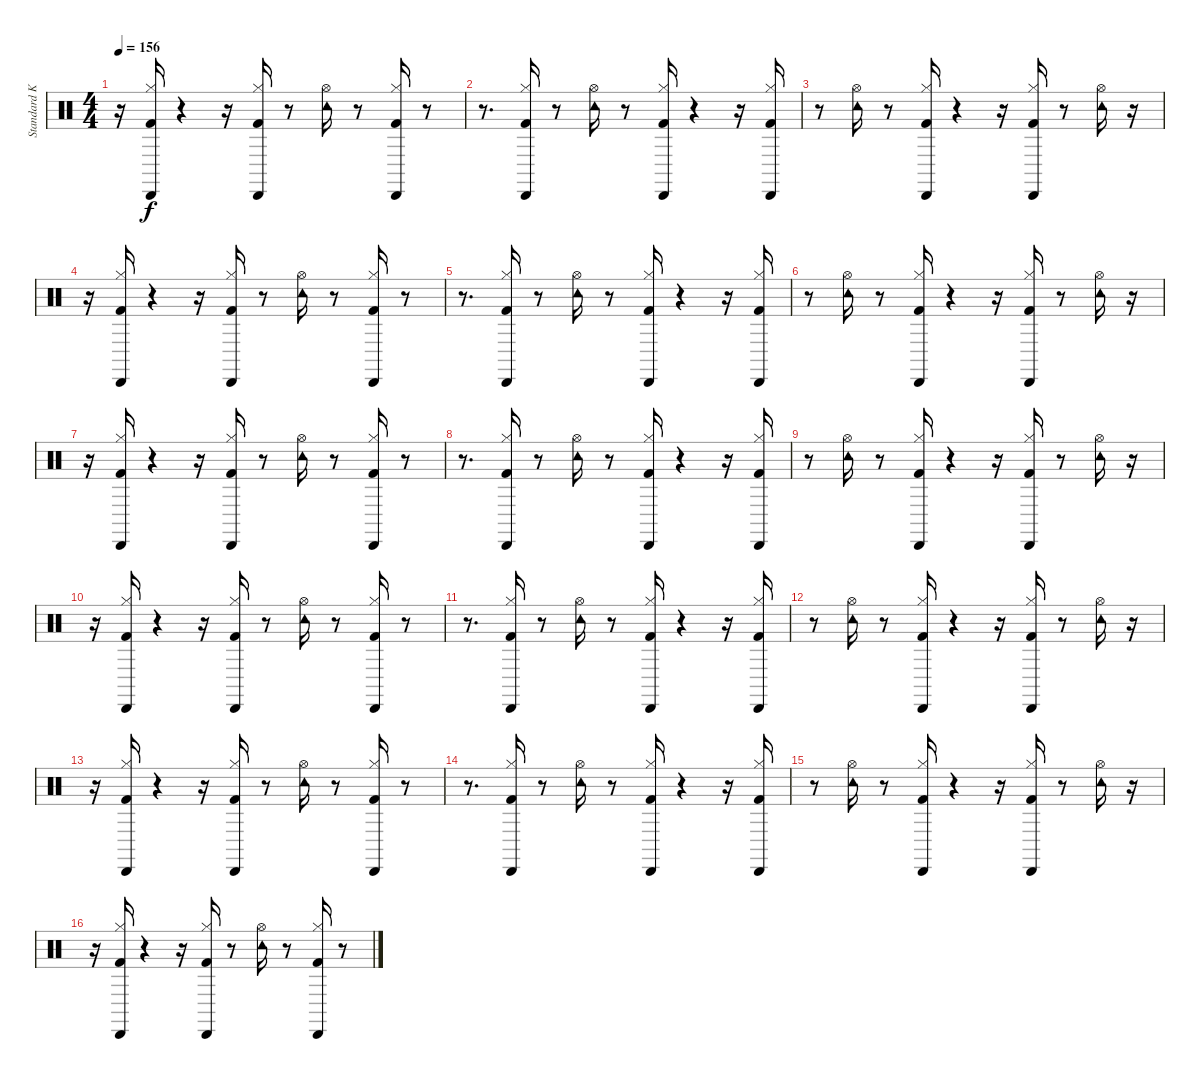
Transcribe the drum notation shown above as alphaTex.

\track ("Standard Kit" "Standard K") {instrument percussion}
\staff {score}
\articulation defaults
\ts (4 4)
\tempo 156
\clef neutral
\ks c
r.16{dy f} ("Kick (hit) 2" "Hi-Hat (closed)" "Cabasa (hit)").16 r.4 r.16 ("Kick (hit) 2" "Hi-Hat (closed)" "Cabasa (hit)").16 r.8 ("Hi-Hat (open)" "Tambourine (hit)").16 r.8 ("Kick (hit) 2" "Hi-Hat (closed)" "Cabasa (hit)").16 r.8 |
r.8{d} ("Kick (hit) 2" "Hi-Hat (closed)" "Cabasa (hit)").16 r.8 ("Hi-Hat (open)" "Tambourine (hit)").16 r.8 ("Kick (hit) 2" "Hi-Hat (closed)" "Cabasa (hit)").16 r.4 r.16 ("Kick (hit) 2" "Hi-Hat (closed)" "Cabasa (hit)").16 |
r.8 ("Hi-Hat (open)" "Tambourine (hit)").16 r.8 ("Kick (hit) 2" "Hi-Hat (closed)" "Cabasa (hit)").16 r.4 r.16 ("Kick (hit) 2" "Hi-Hat (closed)" "Cabasa (hit)").16 r.8 ("Hi-Hat (open)" "Tambourine (hit)").16 r.16 |
r.16 ("Kick (hit) 2" "Hi-Hat (closed)" "Cabasa (hit)").16 r.4 r.16 ("Kick (hit) 2" "Hi-Hat (closed)" "Cabasa (hit)").16 r.8 ("Hi-Hat (open)" "Tambourine (hit)").16 r.8 ("Kick (hit) 2" "Hi-Hat (closed)" "Cabasa (hit)").16 r.8 |
r.8{d} ("Kick (hit) 2" "Hi-Hat (closed)" "Cabasa (hit)").16 r.8 ("Hi-Hat (open)" "Tambourine (hit)").16 r.8 ("Kick (hit) 2" "Hi-Hat (closed)" "Cabasa (hit)").16 r.4 r.16 ("Kick (hit) 2" "Hi-Hat (closed)" "Cabasa (hit)").16 |
r.8 ("Hi-Hat (open)" "Tambourine (hit)").16 r.8 ("Kick (hit) 2" "Hi-Hat (closed)" "Cabasa (hit)").16 r.4 r.16 ("Kick (hit) 2" "Hi-Hat (closed)" "Cabasa (hit)").16 r.8 ("Hi-Hat (open)" "Tambourine (hit)").16 r.16 |
r.16 ("Kick (hit) 2" "Hi-Hat (closed)" "Cabasa (hit)").16 r.4 r.16 ("Kick (hit) 2" "Hi-Hat (closed)" "Cabasa (hit)").16 r.8 ("Hi-Hat (open)" "Tambourine (hit)").16 r.8 ("Kick (hit) 2" "Hi-Hat (closed)" "Cabasa (hit)").16 r.8 |
r.8{d} ("Kick (hit) 2" "Hi-Hat (closed)" "Cabasa (hit)").16 r.8 ("Hi-Hat (open)" "Tambourine (hit)").16 r.8 ("Kick (hit) 2" "Hi-Hat (closed)" "Cabasa (hit)").16 r.4 r.16 ("Kick (hit) 2" "Hi-Hat (closed)" "Cabasa (hit)").16 |
r.8 ("Hi-Hat (open)" "Tambourine (hit)").16 r.8 ("Kick (hit) 2" "Hi-Hat (closed)" "Cabasa (hit)").16 r.4 r.16 ("Kick (hit) 2" "Hi-Hat (closed)" "Cabasa (hit)").16 r.8 ("Hi-Hat (open)" "Tambourine (hit)").16 r.16 |
r.16 ("Kick (hit) 2" "Hi-Hat (closed)" "Cabasa (hit)").16 r.4 r.16 ("Kick (hit) 2" "Hi-Hat (closed)" "Cabasa (hit)").16 r.8 ("Hi-Hat (open)" "Tambourine (hit)").16 r.8 ("Kick (hit) 2" "Hi-Hat (closed)" "Cabasa (hit)").16 r.8 |
r.8{d} ("Kick (hit) 2" "Hi-Hat (closed)" "Cabasa (hit)").16 r.8 ("Hi-Hat (open)" "Tambourine (hit)").16 r.8 ("Kick (hit) 2" "Hi-Hat (closed)" "Cabasa (hit)").16 r.4 r.16 ("Kick (hit) 2" "Hi-Hat (closed)" "Cabasa (hit)").16 |
r.8 ("Hi-Hat (open)" "Tambourine (hit)").16 r.8 ("Kick (hit) 2" "Hi-Hat (closed)" "Cabasa (hit)").16 r.4 r.16 ("Kick (hit) 2" "Hi-Hat (closed)" "Cabasa (hit)").16 r.8 ("Hi-Hat (open)" "Tambourine (hit)").16 r.16 |
r.16 ("Kick (hit) 2" "Hi-Hat (closed)" "Cabasa (hit)").16 r.4 r.16 ("Kick (hit) 2" "Hi-Hat (closed)" "Cabasa (hit)").16 r.8 ("Hi-Hat (open)" "Tambourine (hit)").16 r.8 ("Kick (hit) 2" "Hi-Hat (closed)" "Cabasa (hit)").16 r.8 |
r.8{d} ("Kick (hit) 2" "Hi-Hat (closed)" "Cabasa (hit)").16 r.8 ("Hi-Hat (open)" "Tambourine (hit)").16 r.8 ("Kick (hit) 2" "Hi-Hat (closed)" "Cabasa (hit)").16 r.4 r.16 ("Kick (hit) 2" "Hi-Hat (closed)" "Cabasa (hit)").16 |
r.8 ("Hi-Hat (open)" "Tambourine (hit)").16 r.8 ("Kick (hit) 2" "Hi-Hat (closed)" "Cabasa (hit)").16 r.4 r.16 ("Kick (hit) 2" "Hi-Hat (closed)" "Cabasa (hit)").16 r.8 ("Hi-Hat (open)" "Tambourine (hit)").16 r.16 |
r.16 ("Kick (hit) 2" "Hi-Hat (closed)" "Cabasa (hit)").16 r.4 r.16 ("Kick (hit) 2" "Hi-Hat (closed)" "Cabasa (hit)").16 r.8 ("Hi-Hat (open)" "Tambourine (hit)").16 r.8 ("Kick (hit) 2" "Hi-Hat (closed)" "Cabasa (hit)").16 r.8
